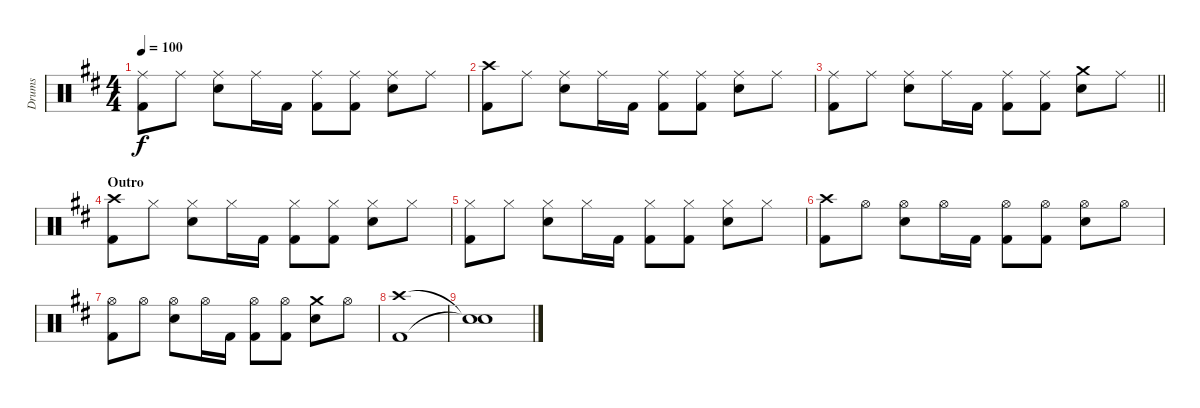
\track ("Drums" "Drums") {instrument percussion}
\staff {score}
\articulation defaults
\ts (4 4)
\tempo 100
\clef neutral
\ks d
("Ride (middle)" "Kick (hit) 2").8{dy f} "Ride (middle)".8 ("Ride (middle)" "Snare (hit) 2").8 "Ride (middle)".16 "Kick (hit) 2".16 ("Ride (middle)" "Kick (hit) 2").8 ("Ride (middle)" "Kick (hit) 2").8 ("Ride (middle)" "Snare (hit) 2").8 "Ride (middle)".8 |
("Crash high (hit)" "Kick (hit) 2").8 "Ride (middle)".8 ("Ride (middle)" "Snare (hit) 2").8 "Ride (middle)".16 "Kick (hit) 2".16 ("Ride (middle)" "Kick (hit) 2").8 ("Ride (middle)" "Kick (hit) 2").8 ("Ride (middle)" "Snare (hit) 2").8 "Ride (middle)".8 |
\barLineRight lightlight
("Ride (middle)" "Kick (hit) 2").8 "Ride (middle)".8 ("Ride (middle)" "Snare (hit) 2").8 "Ride (middle)".16 "Kick (hit) 2".16 ("Ride (middle)" "Kick (hit) 2").8 ("Ride (middle)" "Kick (hit) 2").8 ("Crash medium (hit)" "Snare (hit) 2").8 "Ride (middle)".8 |
\section ("" "Outro")
("Crash high (hit)" "Kick (hit) 2").8 "Hi-Hat (closed)".8 ("Hi-Hat (closed)" "Snare (hit) 2").8 "Hi-Hat (closed)".16 "Kick (hit) 2".16 ("Hi-Hat (closed)" "Kick (hit) 2").8 ("Hi-Hat (closed)" "Kick (hit) 2").8 ("Hi-Hat (closed)" "Snare (hit) 2").8 "Hi-Hat (closed)".8 |
("Hi-Hat (closed)" "Kick (hit) 2").8 "Hi-Hat (closed)".8 ("Hi-Hat (closed)" "Snare (hit) 2").8 "Hi-Hat (closed)".16 "Kick (hit) 2".16 ("Hi-Hat (closed)" "Kick (hit) 2").8 ("Hi-Hat (closed)" "Kick (hit) 2").8 ("Hi-Hat (closed)" "Snare (hit) 2").8 "Hi-Hat (closed)".8 |
("Crash high (hit)" "Kick (hit) 2").8 "Hi-Hat (open)".8 ("Hi-Hat (open)" "Snare (hit) 2").8 "Hi-Hat (open)".16 "Kick (hit) 2".16 ("Hi-Hat (open)" "Kick (hit) 2").8 ("Hi-Hat (open)" "Kick (hit) 2").8 ("Hi-Hat (open)" "Snare (hit) 2").8 "Hi-Hat (open)".8 |
("Hi-Hat (open)" "Kick (hit) 2").8 "Hi-Hat (open)".8 ("Hi-Hat (open)" "Snare (hit) 2").8 "Hi-Hat (open)".16 "Kick (hit) 2".16 ("Hi-Hat (open)" "Kick (hit) 2").8 ("Hi-Hat (open)" "Kick (hit) 2").8 ("Crash medium (hit)" "Snare (hit) 2").8 "Hi-Hat (open)".8 |
("Crash high (hit)" "Kick (hit) 2").1 |
("Snare (hit)"{t} "Snare (hit)"{t}).1
